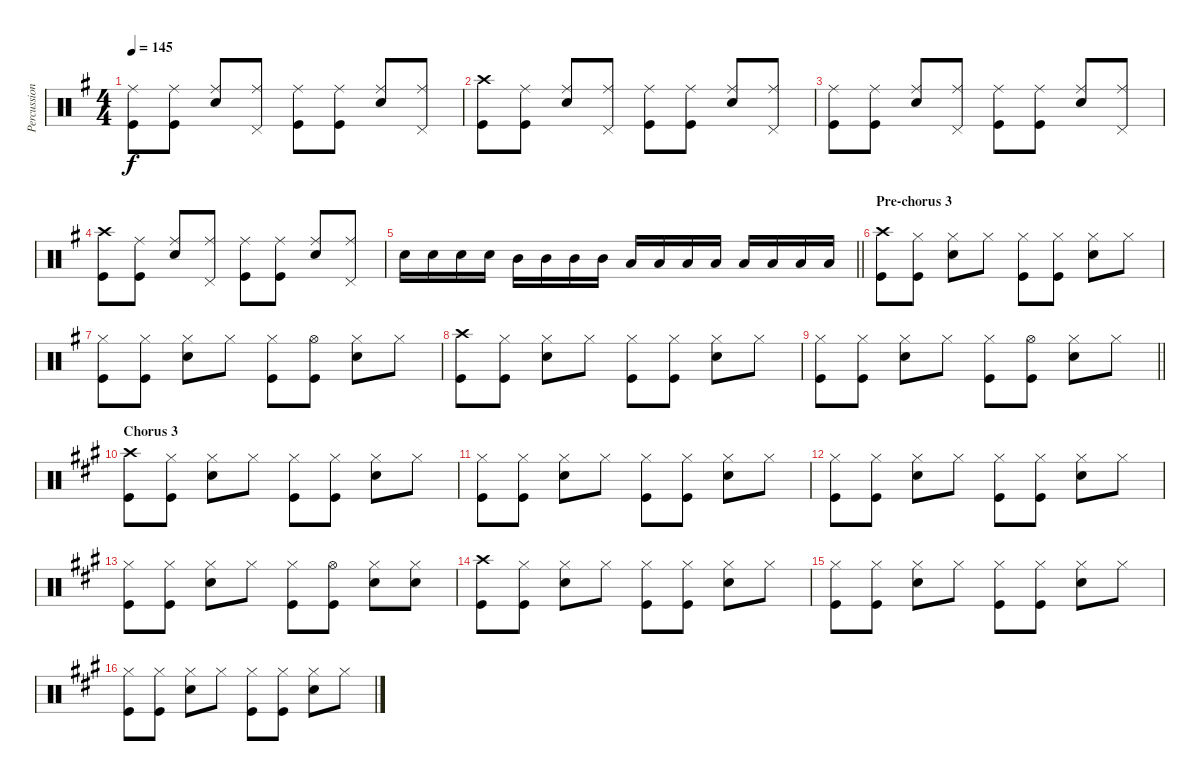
\track ("Percussion" "Percussion") {instrument percussion}
\staff {score}
\articulation defaults
\ts (4 4)
\tempo 145
\clef neutral
\ks eminor
("Ride (middle)" "Kick (hit)").8{dy f} ("Ride (middle)" "Kick (hit)").8 ("Ride (middle)" "Snare (hit) 2").8 ("Ride (middle)" "Pedal Hi-Hat (hit)").8 ("Ride (middle)" "Kick (hit)").8 ("Ride (middle)" "Kick (hit)").8 ("Ride (middle)" "Snare (hit) 2").8 ("Ride (middle)" "Pedal Hi-Hat (hit)").8 |
("Crash high (hit)" "Kick (hit)").8 ("Ride (middle)" "Kick (hit)").8 ("Ride (middle)" "Snare (hit) 2").8 ("Ride (middle)" "Pedal Hi-Hat (hit)").8 ("Ride (middle)" "Kick (hit)").8 ("Ride (middle)" "Kick (hit)").8 ("Ride (middle)" "Snare (hit) 2").8 ("Ride (middle)" "Pedal Hi-Hat (hit)").8 |
("Ride (middle)" "Kick (hit)").8 ("Ride (middle)" "Kick (hit)").8 ("Ride (middle)" "Snare (hit) 2").8 ("Ride (middle)" "Pedal Hi-Hat (hit)").8 ("Ride (middle)" "Kick (hit)").8 ("Ride (middle)" "Kick (hit)").8 ("Ride (middle)" "Snare (hit) 2").8 ("Ride (middle)" "Pedal Hi-Hat (hit)").8 |
("Crash high (hit)" "Kick (hit)").8 ("Ride (middle)" "Kick (hit)").8 ("Ride (middle)" "Snare (hit) 2").8 ("Ride (middle)" "Pedal Hi-Hat (hit)").8 ("Ride (middle)" "Kick (hit)").8 ("Ride (middle)" "Kick (hit)").8 ("Ride (middle)" "Snare (hit) 2").8 ("Ride (middle)" "Pedal Hi-Hat (hit)").8 |
\barLineRight lightlight "Snare (hit) 2".16 "Snare (hit) 2".16 "Snare (hit) 2".16 "Snare (hit) 2".16 "Mid Tom (hit)".16 "Mid Tom (hit)".16 "Mid Tom (hit)".16 "Mid Tom (hit)".16 "Low Tom (hit)".16 "Low Tom (hit)".16 "Low Tom (hit)".16 "Low Tom (hit)".16 "Low Floor Tom (hit)".16 "Low Floor Tom (hit)".16 "Low Floor Tom (hit)".16 "Low Floor Tom (hit)".16
|
\section ("" "Pre-chorus 3")
("Crash high (hit)" "Kick (hit)").8 ("Hi-Hat (closed)" "Kick (hit)").8 ("Hi-Hat (closed)" "Snare (hit) 2").8 "Hi-Hat (closed)".8 ("Hi-Hat (closed)" "Kick (hit)").8 ("Hi-Hat (closed)" "Kick (hit)").8 ("Hi-Hat (closed)" "Snare (hit) 2").8 "Hi-Hat (closed)".8 |
("Hi-Hat (closed)" "Kick (hit)").8 ("Hi-Hat (closed)" "Kick (hit)").8 ("Hi-Hat (closed)" "Snare (hit) 2").8 "Hi-Hat (closed)".8 ("Hi-Hat (closed)" "Kick (hit)").8 ("Hi-Hat (open)" "Kick (hit)").8 ("Hi-Hat (closed)" "Snare (hit) 2").8 "Hi-Hat (closed)".8 |
("Crash high (hit)" "Kick (hit)").8 ("Hi-Hat (closed)" "Kick (hit)").8 ("Hi-Hat (closed)" "Snare (hit) 2").8 "Hi-Hat (closed)".8 ("Hi-Hat (closed)" "Kick (hit)").8 ("Hi-Hat (closed)" "Kick (hit)").8 ("Hi-Hat (closed)" "Snare (hit) 2").8 "Hi-Hat (closed)".8 |
\barLineRight lightlight
("Hi-Hat (closed)" "Kick (hit)").8 ("Hi-Hat (closed)" "Kick (hit)").8 ("Hi-Hat (closed)" "Snare (hit) 2").8 "Hi-Hat (closed)".8 ("Hi-Hat (closed)" "Kick (hit)").8 ("Hi-Hat (open)" "Kick (hit)").8 ("Hi-Hat (closed)" "Snare (hit) 2").8 "Hi-Hat (closed)".8 |
\section ("" "Chorus 3")
\ks a
("Crash high (hit)" "Kick (hit)").8 ("Hi-Hat (closed)" "Kick (hit)").8 ("Hi-Hat (closed)" "Snare (hit) 2").8 "Hi-Hat (closed)".8 ("Hi-Hat (closed)" "Kick (hit)").8 ("Hi-Hat (closed)" "Kick (hit)").8 ("Hi-Hat (closed)" "Snare (hit) 2").8 "Hi-Hat (closed)".8 |
("Hi-Hat (closed)" "Kick (hit)").8 ("Hi-Hat (closed)" "Kick (hit)").8 ("Hi-Hat (closed)" "Snare (hit) 2").8 "Hi-Hat (closed)".8 ("Hi-Hat (closed)" "Kick (hit)").8 ("Hi-Hat (closed)" "Kick (hit)").8 ("Hi-Hat (closed)" "Snare (hit) 2").8 "Hi-Hat (closed)".8 |
("Hi-Hat (closed)" "Kick (hit)").8 ("Hi-Hat (closed)" "Kick (hit)").8 ("Hi-Hat (closed)" "Snare (hit) 2").8 "Hi-Hat (closed)".8 ("Hi-Hat (closed)" "Kick (hit)").8 ("Hi-Hat (closed)" "Kick (hit)").8 ("Hi-Hat (closed)" "Snare (hit) 2").8 "Hi-Hat (closed)".8 |
("Hi-Hat (closed)" "Kick (hit)").8 ("Hi-Hat (closed)" "Kick (hit)").8 ("Hi-Hat (closed)" "Snare (hit) 2").8 "Hi-Hat (closed)".8 ("Hi-Hat (closed)" "Kick (hit)").8 ("Hi-Hat (open)" "Kick (hit)").8 ("Hi-Hat (closed)" "Snare (hit) 2").8 ("Hi-Hat (closed)" "Snare (hit) 2").8 |
("Crash high (hit)" "Kick (hit)").8 ("Hi-Hat (closed)" "Kick (hit)").8 ("Hi-Hat (closed)" "Snare (hit) 2").8 "Hi-Hat (closed)".8 ("Hi-Hat (closed)" "Kick (hit)").8 ("Hi-Hat (closed)" "Kick (hit)").8 ("Hi-Hat (closed)" "Snare (hit) 2").8 "Hi-Hat (closed)".8 |
("Hi-Hat (closed)" "Kick (hit)").8 ("Hi-Hat (closed)" "Kick (hit)").8 ("Hi-Hat (closed)" "Snare (hit) 2").8 "Hi-Hat (closed)".8 ("Hi-Hat (closed)" "Kick (hit)").8 ("Hi-Hat (closed)" "Kick (hit)").8 ("Hi-Hat (closed)" "Snare (hit) 2").8 "Hi-Hat (closed)".8 |
("Hi-Hat (closed)" "Kick (hit)").8 ("Hi-Hat (closed)" "Kick (hit)").8 ("Hi-Hat (closed)" "Snare (hit) 2").8 "Hi-Hat (closed)".8 ("Hi-Hat (closed)" "Kick (hit)").8 ("Hi-Hat (closed)" "Kick (hit)").8 ("Hi-Hat (closed)" "Snare (hit) 2").8 "Hi-Hat (closed)".8
